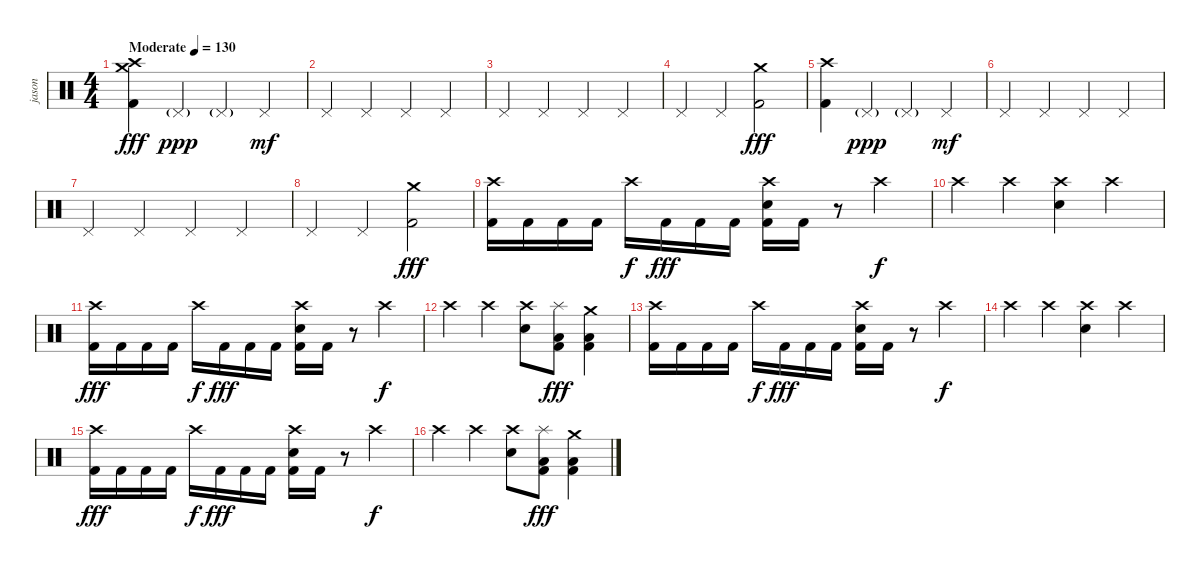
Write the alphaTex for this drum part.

\track ("jason" "jason") {solo instrument percussion}
\staff {score}
\articulation defaults
\ts (4 4)
\tempo (130 "Moderate")
\clef neutral
\ks c
("Crash medium (hit)" "Crash high (hit)" "Kick (hit) 2").4{dy fff} "Pedal Hi-Hat (hit)"{g}.4{dy ppp} "Pedal Hi-Hat (hit)"{g}.4 "Pedal Hi-Hat (hit)".4{dy mf} |
"Pedal Hi-Hat (hit)".4 "Pedal Hi-Hat (hit)".4 "Pedal Hi-Hat (hit)".4 "Pedal Hi-Hat (hit)".4 |
"Pedal Hi-Hat (hit)".4 "Pedal Hi-Hat (hit)".4 "Pedal Hi-Hat (hit)".4 "Pedal Hi-Hat (hit)".4 |
"Pedal Hi-Hat (hit)".4 "Pedal Hi-Hat (hit)".4 ("Crash medium (hit)" "Kick (hit) 2").2{dy fff} |
("Crash high (hit)" "Kick (hit) 2").4 "Pedal Hi-Hat (hit)"{g}.4{dy ppp} "Pedal Hi-Hat (hit)"{g}.4 "Pedal Hi-Hat (hit)".4{dy mf} |
"Pedal Hi-Hat (hit)".4 "Pedal Hi-Hat (hit)".4 "Pedal Hi-Hat (hit)".4 "Pedal Hi-Hat (hit)".4 |
"Pedal Hi-Hat (hit)".4 "Pedal Hi-Hat (hit)".4 "Pedal Hi-Hat (hit)".4 "Pedal Hi-Hat (hit)".4 |
"Pedal Hi-Hat (hit)".4 "Pedal Hi-Hat (hit)".4 ("Crash medium (hit)" "Kick (hit) 2").2{dy fff} |
("Crash high (hit)" "Kick (hit) 2").16 "Kick (hit) 2".16 "Kick (hit) 2".16 "Kick (hit) 2".16 "Crash high (hit)".16{dy f} "Kick (hit) 2".16{dy fff} "Kick (hit) 2".16 "Kick (hit) 2".16 ("Crash high (hit)" "Snare (hit) 2" "Kick (hit) 2").16 "Kick (hit) 2".16 r.8 "Crash high (hit)".4{dy f} |
"Crash high (hit)".4 "Crash high (hit)".4 ("Crash high (hit)" "Snare (hit) 2").4 "Crash high (hit)".4 |
("Crash high (hit)" "Kick (hit) 2").16{dy fff} "Kick (hit) 2".16 "Kick (hit) 2".16 "Kick (hit) 2".16 "Crash high (hit)".16{dy f} "Kick (hit) 2".16{dy fff} "Kick (hit) 2".16 "Kick (hit) 2".16 ("Crash high (hit)" "Snare (hit) 2" "Kick (hit) 2").16 "Kick (hit) 2".16 r.8 "Crash high (hit)".4{dy f} |
"Crash high (hit)".4 "Crash high (hit)".4 ("Crash high (hit)" "Snare (hit) 2").8 ("Splash (hit)" "Low Tom (hit)" "Kick (hit) 2").8{dy fff} ("Crash medium (hit)" "Low Floor Tom (hit)" "Kick (hit) 2").4 |
("Crash high (hit)" "Kick (hit) 2").16 "Kick (hit) 2".16 "Kick (hit) 2".16 "Kick (hit) 2".16 "Crash high (hit)".16{dy f} "Kick (hit) 2".16{dy fff} "Kick (hit) 2".16 "Kick (hit) 2".16 ("Crash high (hit)" "Snare (hit) 2" "Kick (hit) 2").16 "Kick (hit) 2".16 r.8 "Crash high (hit)".4{dy f} |
"Crash high (hit)".4 "Crash high (hit)".4 ("Crash high (hit)" "Snare (hit) 2").4 "Crash high (hit)".4 |
("Crash high (hit)" "Kick (hit) 2").16{dy fff} "Kick (hit) 2".16 "Kick (hit) 2".16 "Kick (hit) 2".16 "Crash high (hit)".16{dy f} "Kick (hit) 2".16{dy fff} "Kick (hit) 2".16 "Kick (hit) 2".16 ("Crash high (hit)" "Snare (hit) 2" "Kick (hit) 2").16 "Kick (hit) 2".16 r.8 "Crash high (hit)".4{dy f} |
"Crash high (hit)".4 "Crash high (hit)".4 ("Crash high (hit)" "Snare (hit) 2").8 ("Splash (hit)" "Low Tom (hit)" "Kick (hit) 2").8{dy fff} ("Crash medium (hit)" "Low Floor Tom (hit)" "Kick (hit) 2").4
